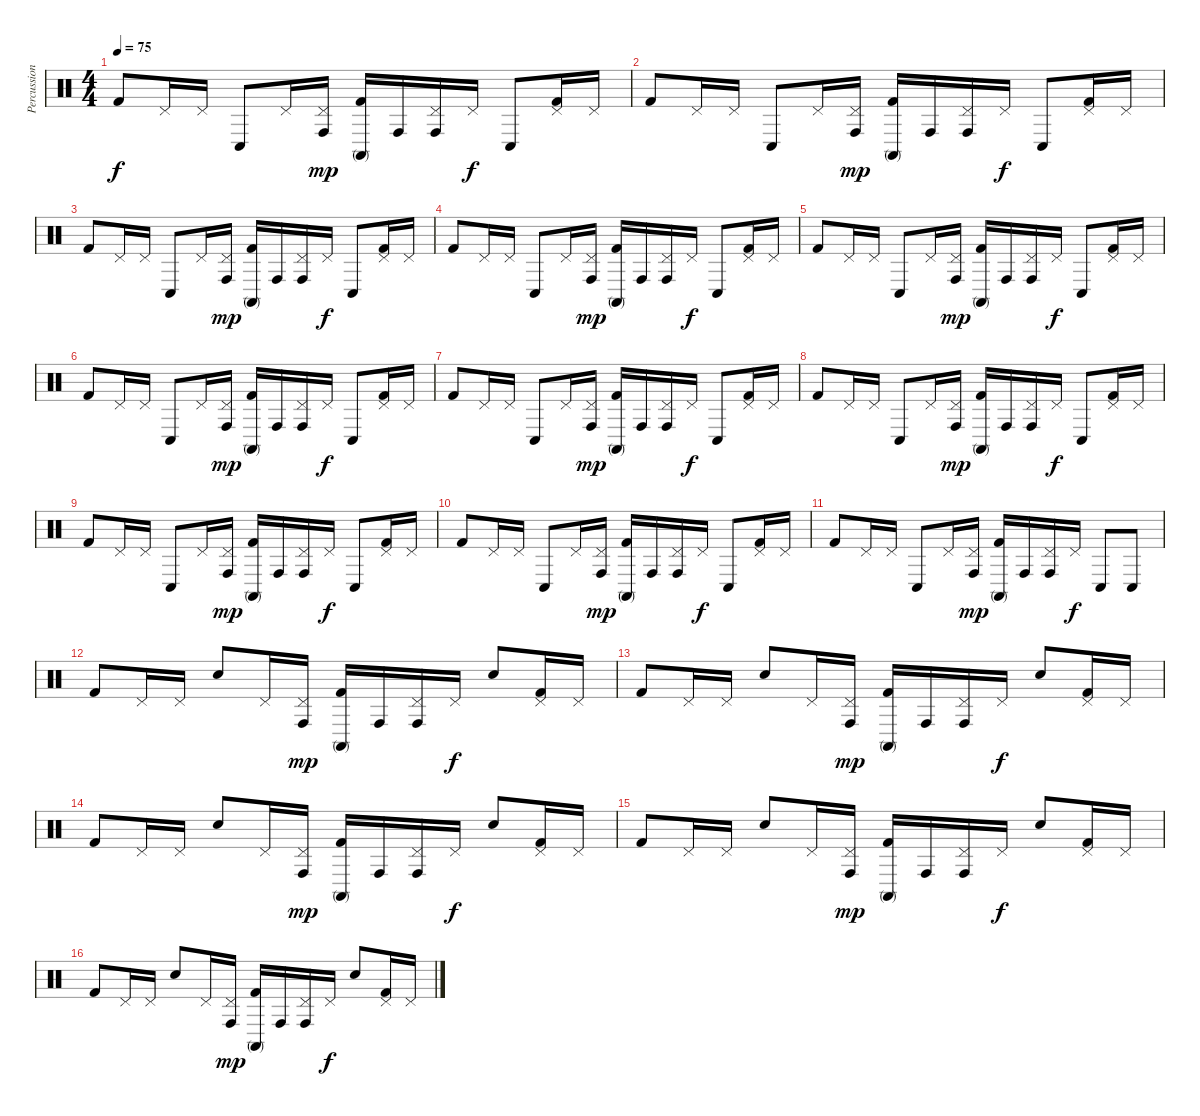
\track ("Percussion" "Percussion") {instrument percussion}
\staff {score}
\articulation defaults
\ts (4 4)
\tempo 75
\clef neutral
\ks c "Kick (hit) 2".8{dy f} "Pedal Hi-Hat (hit)".16 "Pedal Hi-Hat (hit)".16 "Conga low (hit)".8 "Pedal Hi-Hat (hit)".16
("Pedal Hi-Hat (hit)" "Conga high (hit)").16{dy mp} ("Conga high (mute)" "Kick (hit) 2").16 "Conga high (hit)".16 ("Pedal Hi-Hat (hit)" "Conga high (hit)").16 "Pedal Hi-Hat (hit)".16{dy f} "Conga low (hit)".8 ("Pedal Hi-Hat (hit)" "Kick (hit) 2").16 "Pedal Hi-Hat (hit)".16 |
"Kick (hit) 2".8 "Pedal Hi-Hat (hit)".16 "Pedal Hi-Hat (hit)".16 "Conga low (hit)".8 "Pedal Hi-Hat (hit)".16 ("Pedal Hi-Hat (hit)" "Conga high (hit)").16{dy mp} ("Conga high (mute)" "Kick (hit) 2").16 "Conga high (hit)".16 ("Pedal Hi-Hat (hit)" "Conga high (hit)").16 "Pedal Hi-Hat (hit)".16{dy f} "Conga low (hit)".8 ("Pedal Hi-Hat (hit)" "Kick (hit) 2").16 "Pedal Hi-Hat (hit)".16 |
"Kick (hit) 2".8 "Pedal Hi-Hat (hit)".16 "Pedal Hi-Hat (hit)".16 "Conga low (hit)".8 "Pedal Hi-Hat (hit)".16 ("Pedal Hi-Hat (hit)" "Conga high (hit)").16{dy mp} ("Conga high (mute)" "Kick (hit) 2").16 "Conga high (hit)".16 ("Pedal Hi-Hat (hit)" "Conga high (hit)").16 "Pedal Hi-Hat (hit)".16{dy f} "Conga low (hit)".8 ("Pedal Hi-Hat (hit)" "Kick (hit) 2").16 "Pedal Hi-Hat (hit)".16 |
"Kick (hit) 2".8 "Pedal Hi-Hat (hit)".16 "Pedal Hi-Hat (hit)".16 "Conga low (hit)".8 "Pedal Hi-Hat (hit)".16 ("Pedal Hi-Hat (hit)" "Conga high (hit)").16{dy mp} ("Conga high (mute)" "Kick (hit) 2").16 "Conga high (hit)".16 ("Pedal Hi-Hat (hit)" "Conga high (hit)").16 "Pedal Hi-Hat (hit)".16{dy f} "Conga low (hit)".8 ("Pedal Hi-Hat (hit)" "Kick (hit) 2").16 "Pedal Hi-Hat (hit)".16 |
"Kick (hit) 2".8 "Pedal Hi-Hat (hit)".16 "Pedal Hi-Hat (hit)".16 "Conga low (hit)".8 "Pedal Hi-Hat (hit)".16 ("Pedal Hi-Hat (hit)" "Conga high (hit)").16{dy mp} ("Conga high (mute)" "Kick (hit) 2").16 "Conga high (hit)".16 ("Pedal Hi-Hat (hit)" "Conga high (hit)").16 "Pedal Hi-Hat (hit)".16{dy f} "Conga low (hit)".8 ("Pedal Hi-Hat (hit)" "Kick (hit) 2").16 "Pedal Hi-Hat (hit)".16 |
"Kick (hit) 2".8 "Pedal Hi-Hat (hit)".16 "Pedal Hi-Hat (hit)".16 "Conga low (hit)".8 "Pedal Hi-Hat (hit)".16 ("Pedal Hi-Hat (hit)" "Conga high (hit)").16{dy mp} ("Conga high (mute)" "Kick (hit) 2").16 "Conga high (hit)".16 ("Pedal Hi-Hat (hit)" "Conga high (hit)").16 "Pedal Hi-Hat (hit)".16{dy f} "Conga low (hit)".8 ("Pedal Hi-Hat (hit)" "Kick (hit) 2").16 "Pedal Hi-Hat (hit)".16 |
"Kick (hit) 2".8 "Pedal Hi-Hat (hit)".16 "Pedal Hi-Hat (hit)".16 "Conga low (hit)".8 "Pedal Hi-Hat (hit)".16 ("Pedal Hi-Hat (hit)" "Conga high (hit)").16{dy mp} ("Conga high (mute)" "Kick (hit) 2").16 "Conga high (hit)".16 ("Pedal Hi-Hat (hit)" "Conga high (hit)").16 "Pedal Hi-Hat (hit)".16{dy f} "Conga low (hit)".8 ("Pedal Hi-Hat (hit)" "Kick (hit) 2").16 "Pedal Hi-Hat (hit)".16 |
"Kick (hit) 2".8 "Pedal Hi-Hat (hit)".16 "Pedal Hi-Hat (hit)".16 "Conga low (hit)".8 "Pedal Hi-Hat (hit)".16 ("Pedal Hi-Hat (hit)" "Conga high (hit)").16{dy mp} ("Conga high (mute)" "Kick (hit) 2").16 "Conga high (hit)".16 ("Pedal Hi-Hat (hit)" "Conga high (hit)").16 "Pedal Hi-Hat (hit)".16{dy f} "Conga low (hit)".8 ("Pedal Hi-Hat (hit)" "Kick (hit) 2").16 "Pedal Hi-Hat (hit)".16 |
"Kick (hit) 2".8 "Pedal Hi-Hat (hit)".16 "Pedal Hi-Hat (hit)".16 "Conga low (hit)".8 "Pedal Hi-Hat (hit)".16 ("Pedal Hi-Hat (hit)" "Conga high (hit)").16{dy mp} ("Conga high (mute)" "Kick (hit) 2").16 "Conga high (hit)".16 ("Pedal Hi-Hat (hit)" "Conga high (hit)").16 "Pedal Hi-Hat (hit)".16{dy f} "Conga low (hit)".8 ("Pedal Hi-Hat (hit)" "Kick (hit) 2").16 "Pedal Hi-Hat (hit)".16 |
"Kick (hit) 2".8 "Pedal Hi-Hat (hit)".16 "Pedal Hi-Hat (hit)".16 "Conga low (hit)".8 "Pedal Hi-Hat (hit)".16 ("Pedal Hi-Hat (hit)" "Conga high (hit)").16{dy mp} ("Conga high (mute)" "Kick (hit) 2").16 "Conga high (hit)".16 ("Pedal Hi-Hat (hit)" "Conga high (hit)").16 "Pedal Hi-Hat (hit)".16{dy f} "Conga low (hit)".8 ("Pedal Hi-Hat (hit)" "Kick (hit) 2").16 "Pedal Hi-Hat (hit)".16 |
"Kick (hit) 2".8 "Pedal Hi-Hat (hit)".16 "Pedal Hi-Hat (hit)".16 "Conga low (hit)".8 "Pedal Hi-Hat (hit)".16 ("Pedal Hi-Hat (hit)" "Conga high (hit)").16{dy mp} ("Conga high (mute)" "Kick (hit) 2").16 "Conga high (hit)".16 ("Pedal Hi-Hat (hit)" "Conga high (hit)").16 "Pedal Hi-Hat (hit)".16{dy f} "Conga low (hit)".8 "Conga low (hit)".8 |
"Kick (hit) 2".8 "Pedal Hi-Hat (hit)".16 "Pedal Hi-Hat (hit)".16 "Snare (hit) 2".8 "Pedal Hi-Hat (hit)".16 ("Pedal Hi-Hat (hit)" "Conga high (hit)").16{dy mp} ("Conga high (mute)" "Kick (hit) 2").16 "Conga high (hit)".16 ("Pedal Hi-Hat (hit)" "Conga high (hit)").16 "Pedal Hi-Hat (hit)".16{dy f} "Snare (hit) 2".8 ("Pedal Hi-Hat (hit)" "Kick (hit) 2").16 "Pedal Hi-Hat (hit)".16 |
"Kick (hit) 2".8 "Pedal Hi-Hat (hit)".16 "Pedal Hi-Hat (hit)".16 "Snare (hit) 2".8 "Pedal Hi-Hat (hit)".16 ("Pedal Hi-Hat (hit)" "Conga high (hit)").16{dy mp} ("Conga high (mute)" "Kick (hit) 2").16 "Conga high (hit)".16 ("Pedal Hi-Hat (hit)" "Conga high (hit)").16 "Pedal Hi-Hat (hit)".16{dy f} "Snare (hit) 2".8 ("Pedal Hi-Hat (hit)" "Kick (hit) 2").16 "Pedal Hi-Hat (hit)".16 |
"Kick (hit) 2".8 "Pedal Hi-Hat (hit)".16 "Pedal Hi-Hat (hit)".16 "Snare (hit) 2".8 "Pedal Hi-Hat (hit)".16 ("Pedal Hi-Hat (hit)" "Conga high (hit)").16{dy mp} ("Conga high (mute)" "Kick (hit) 2").16 "Conga high (hit)".16 ("Pedal Hi-Hat (hit)" "Conga high (hit)").16 "Pedal Hi-Hat (hit)".16{dy f} "Snare (hit) 2".8 ("Pedal Hi-Hat (hit)" "Kick (hit) 2").16 "Pedal Hi-Hat (hit)".16 |
"Kick (hit) 2".8 "Pedal Hi-Hat (hit)".16 "Pedal Hi-Hat (hit)".16 "Snare (hit) 2".8 "Pedal Hi-Hat (hit)".16 ("Pedal Hi-Hat (hit)" "Conga high (hit)").16{dy mp} ("Conga high (mute)" "Kick (hit) 2").16 "Conga high (hit)".16 ("Pedal Hi-Hat (hit)" "Conga high (hit)").16 "Pedal Hi-Hat (hit)".16{dy f} "Snare (hit) 2".8 ("Pedal Hi-Hat (hit)" "Kick (hit) 2").16 "Pedal Hi-Hat (hit)".16 |
"Kick (hit) 2".8 "Pedal Hi-Hat (hit)".16 "Pedal Hi-Hat (hit)".16 "Snare (hit) 2".8 "Pedal Hi-Hat (hit)".16 ("Pedal Hi-Hat (hit)" "Conga high (hit)").16{dy mp} ("Conga high (mute)" "Kick (hit) 2").16 "Conga high (hit)".16 ("Pedal Hi-Hat (hit)" "Conga high (hit)").16 "Pedal Hi-Hat (hit)".16{dy f} "Snare (hit) 2".8 ("Pedal Hi-Hat (hit)" "Kick (hit) 2").16 "Pedal Hi-Hat (hit)".16
